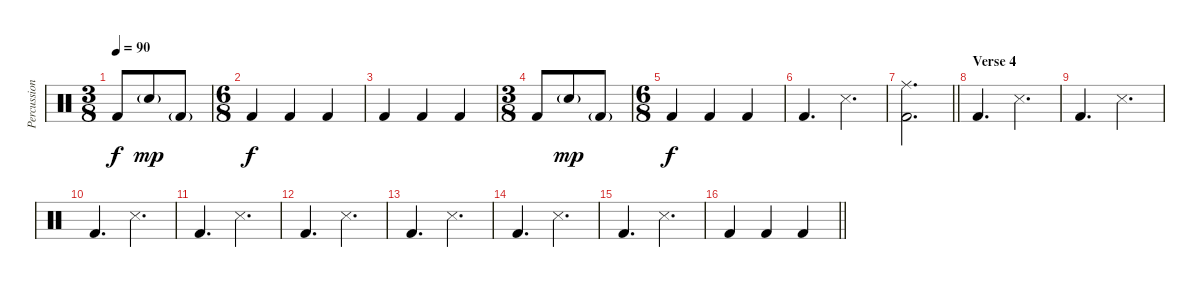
\track ("Percussion" "Percussion") {instrument percussion}
\staff {score}
\articulation defaults
\ts (3 8)
\tempo 90
\clef neutral
\ks c "Kick (hit) 2".8{dy f} "Snare (hit) 2"{g}.8{dy mp} "Kick (hit) 2"{g}.8
|
\ts (6 8)
"Kick (hit) 2".4{dy f} "Kick (hit) 2".4 "Kick (hit) 2".4 |
"Kick (hit) 2".4 "Kick (hit) 2".4 "Kick (hit) 2".4 |
\ts (3 8)
"Kick (hit) 2".8 "Snare (hit) 2"{g}.8{dy mp} "Kick (hit) 2"{g}.8 |
\ts (6 8)
"Kick (hit) 2".4{dy f} "Kick (hit) 2".4 "Kick (hit) 2".4 |
"Kick (hit) 2".4{d} "Snare (side stick) 3".4{d} |
\barLineRight lightlight
("Ride (middle)" "Kick (hit) 2").2{d} |
\section ("" "Verse 4")
"Kick (hit) 2".4{d} "Snare (side stick) 3".4{d} |
"Kick (hit) 2".4{d} "Snare (side stick) 3".4{d} |
"Kick (hit) 2".4{d} "Snare (side stick) 3".4{d} |
"Kick (hit) 2".4{d} "Snare (side stick) 3".4{d} |
"Kick (hit) 2".4{d} "Snare (side stick) 3".4{d} |
"Kick (hit) 2".4{d} "Snare (side stick) 3".4{d} |
"Kick (hit) 2".4{d} "Snare (side stick) 3".4{d} |
"Kick (hit) 2".4{d} "Snare (side stick) 3".4{d} |
\barLineRight lightlight "Kick (hit) 2".4 "Kick (hit) 2".4 "Kick (hit) 2".4
